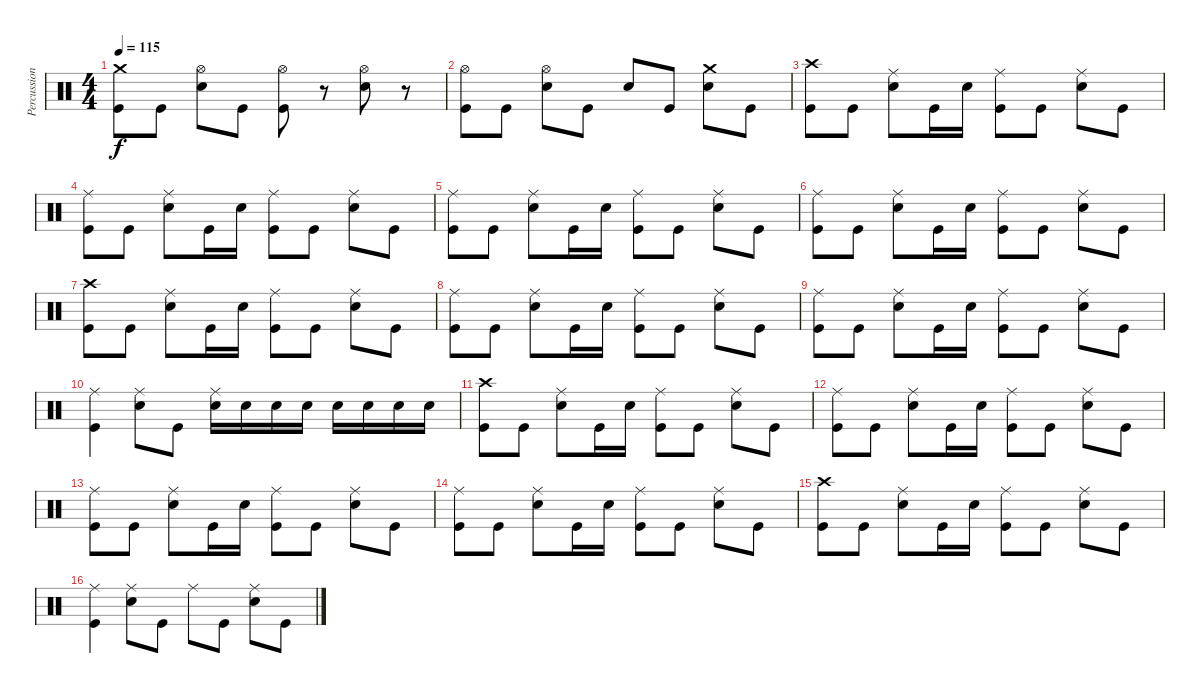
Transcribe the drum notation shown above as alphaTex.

\track ("Percussion" "Percussion") {instrument percussion}
\staff {score}
\articulation defaults
\ts (4 4)
\tempo 115
\clef neutral
\ks c
("Crash medium (hit)" "Kick (hit)").8{dy f} "Kick (hit)".8 ("Hi-Hat (open)" "Electric Snare (hit)").8 "Kick (hit)".8 ("Hi-Hat (open)" "Kick (hit)").8 r.8 ("Hi-Hat (open)" "Electric Snare (hit)").8 r.8 |
("Hi-Hat (open)" "Kick (hit)").8 "Kick (hit)".8 ("Hi-Hat (open)" "Electric Snare (hit)").8 "Kick (hit)".8 "Electric Snare (hit)".8 "Kick (hit)".8 ("Crash medium (hit)" "Electric Snare (hit)").8 "Kick (hit)".8 |
("Crash high (hit)" "Kick (hit)").8 "Kick (hit)".8 ("Ride (middle)" "Electric Snare (hit)").8 "Kick (hit)".16 "Electric Snare (hit)".16 ("Ride (middle)" "Kick (hit)").8 "Kick (hit)".8 ("Ride (middle)" "Electric Snare (hit)").8 "Kick (hit)".8 |
("Ride (middle)" "Kick (hit)").8 "Kick (hit)".8 ("Ride (middle)" "Electric Snare (hit)").8 "Kick (hit)".16 "Electric Snare (hit)".16 ("Ride (middle)" "Kick (hit)").8 "Kick (hit)".8 ("Ride (middle)" "Electric Snare (hit)").8 "Kick (hit)".8 |
("Ride (middle)" "Kick (hit)").8 "Kick (hit)".8 ("Ride (middle)" "Electric Snare (hit)").8 "Kick (hit)".16 "Electric Snare (hit)".16 ("Ride (middle)" "Kick (hit)").8 "Kick (hit)".8 ("Ride (middle)" "Electric Snare (hit)").8 "Kick (hit)".8 |
("Ride (middle)" "Kick (hit)").8 "Kick (hit)".8 ("Ride (middle)" "Electric Snare (hit)").8 "Kick (hit)".16 "Electric Snare (hit)".16 ("Ride (middle)" "Kick (hit)").8 "Kick (hit)".8 ("Ride (middle)" "Electric Snare (hit)").8 "Kick (hit)".8 |
("Crash high (hit)" "Kick (hit)").8 "Kick (hit)".8 ("Ride (middle)" "Electric Snare (hit)").8 "Kick (hit)".16 "Electric Snare (hit)".16 ("Ride (middle)" "Kick (hit)").8 "Kick (hit)".8 ("Ride (middle)" "Electric Snare (hit)").8 "Kick (hit)".8 |
("Ride (middle)" "Kick (hit)").8 "Kick (hit)".8 ("Ride (middle)" "Electric Snare (hit)").8 "Kick (hit)".16 "Electric Snare (hit)".16 ("Ride (middle)" "Kick (hit)").8 "Kick (hit)".8 ("Ride (middle)" "Electric Snare (hit)").8 "Kick (hit)".8 |
("Ride (middle)" "Kick (hit)").8 "Kick (hit)".8 ("Ride (middle)" "Electric Snare (hit)").8 "Kick (hit)".16 "Electric Snare (hit)".16 ("Ride (middle)" "Kick (hit)").8 "Kick (hit)".8 ("Ride (middle)" "Electric Snare (hit)").8 "Kick (hit)".8 |
("Ride (middle)" "Kick (hit)").4 ("Ride (middle)" "Electric Snare (hit)").8 "Kick (hit)".8 ("Ride (middle)" "Electric Snare (hit)").16 "Electric Snare (hit)".16 "Electric Snare (hit)".16 "Electric Snare (hit)".16 "Electric Snare (hit)".16 "Electric Snare (hit)".16 "Electric Snare (hit)".16 "Electric Snare (hit)".16 |
("Crash high (hit)" "Kick (hit)").8 "Kick (hit)".8 ("Ride (middle)" "Electric Snare (hit)").8 "Kick (hit)".16 "Electric Snare (hit)".16 ("Ride (middle)" "Kick (hit)").8 "Kick (hit)".8 ("Ride (middle)" "Electric Snare (hit)").8 "Kick (hit)".8 |
("Ride (middle)" "Kick (hit)").8 "Kick (hit)".8 ("Ride (middle)" "Electric Snare (hit)").8 "Kick (hit)".16 "Electric Snare (hit)".16 ("Ride (middle)" "Kick (hit)").8 "Kick (hit)".8 ("Ride (middle)" "Electric Snare (hit)").8 "Kick (hit)".8 |
("Ride (middle)" "Kick (hit)").8 "Kick (hit)".8 ("Ride (middle)" "Electric Snare (hit)").8 "Kick (hit)".16 "Electric Snare (hit)".16 ("Ride (middle)" "Kick (hit)").8 "Kick (hit)".8 ("Ride (middle)" "Electric Snare (hit)").8 "Kick (hit)".8 |
("Ride (middle)" "Kick (hit)").8 "Kick (hit)".8 ("Ride (middle)" "Electric Snare (hit)").8 "Kick (hit)".16 "Electric Snare (hit)".16 ("Ride (middle)" "Kick (hit)").8 "Kick (hit)".8 ("Ride (middle)" "Electric Snare (hit)").8 "Kick (hit)".8 |
("Crash high (hit)" "Kick (hit)").8 "Kick (hit)".8 ("Ride (middle)" "Electric Snare (hit)").8 "Kick (hit)".16 "Electric Snare (hit)".16 ("Ride (middle)" "Kick (hit)").8 "Kick (hit)".8 ("Ride (middle)" "Electric Snare (hit)").8 "Kick (hit)".8 |
("Ride (middle)" "Kick (hit)").4 ("Ride (middle)" "Electric Snare (hit)").8 "Kick (hit)".8 "Ride (middle)".8 "Kick (hit)".8 ("Ride (middle)" "Electric Snare (hit)").8 "Kick (hit)".8
